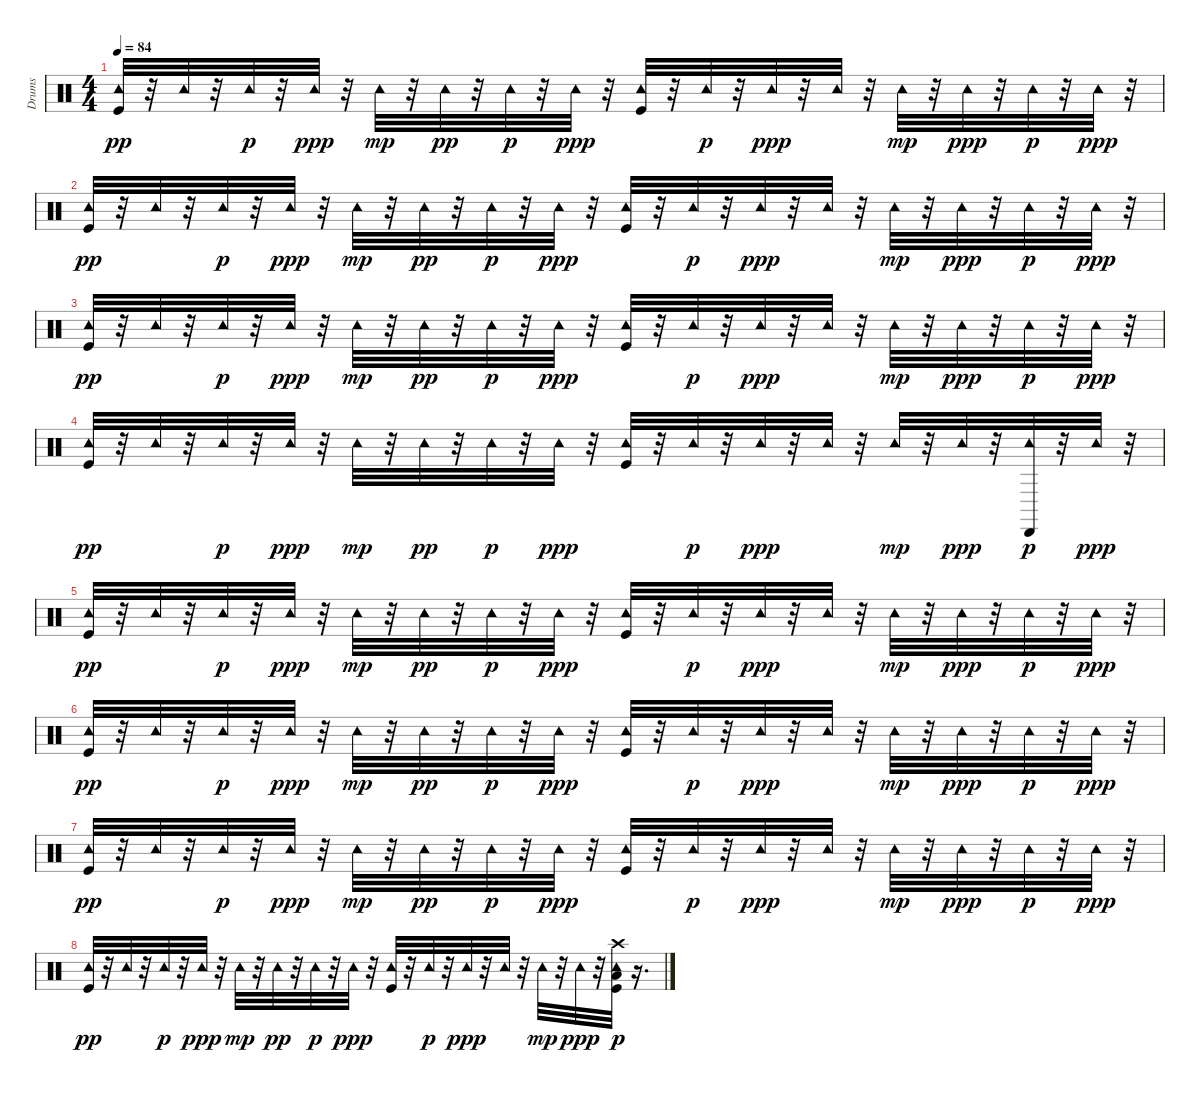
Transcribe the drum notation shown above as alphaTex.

\track ("Drums" "Drums") {instrument percussion}
\staff {score}
\articulation defaults
\ts (4 4)
\tempo 84
\clef neutral
\ks c
("Kick (hit)" "Tambourine (hit)").32{dy pp} r.32 "Tambourine (hit)".32 r.32 "Tambourine (hit)".32{dy p} r.32 "Tambourine (hit)".32{dy ppp} r.32 "Tambourine (hit)".32{dy mp} r.32 "Tambourine (hit)".32{dy pp} r.32 "Tambourine (hit)".32{dy p} r.32 "Tambourine (hit)".32{dy ppp} r.32 ("Kick (hit)" "Tambourine (hit)").32 r.32 "Tambourine (hit)".32{dy p} r.32 "Tambourine (hit)".32{dy ppp} r.32 "Tambourine (hit)".32 r.32 "Tambourine (hit)".32{dy mp} r.32 "Tambourine (hit)".32{dy ppp} r.32 "Tambourine (hit)".32{dy p} r.32 "Tambourine (hit)".32{dy ppp} r.32 |
("Kick (hit)" "Tambourine (hit)").32{dy pp} r.32 "Tambourine (hit)".32 r.32 "Tambourine (hit)".32{dy p} r.32 "Tambourine (hit)".32{dy ppp} r.32 "Tambourine (hit)".32{dy mp} r.32 "Tambourine (hit)".32{dy pp} r.32 "Tambourine (hit)".32{dy p} r.32 "Tambourine (hit)".32{dy ppp} r.32 ("Kick (hit)" "Tambourine (hit)").32 r.32 "Tambourine (hit)".32{dy p} r.32 "Tambourine (hit)".32{dy ppp} r.32 "Tambourine (hit)".32 r.32 "Tambourine (hit)".32{dy mp} r.32 "Tambourine (hit)".32{dy ppp} r.32 "Tambourine (hit)".32{dy p} r.32 "Tambourine (hit)".32{dy ppp} r.32 |
("Kick (hit)" "Tambourine (hit)").32{dy pp} r.32 "Tambourine (hit)".32 r.32 "Tambourine (hit)".32{dy p} r.32 "Tambourine (hit)".32{dy ppp} r.32 "Tambourine (hit)".32{dy mp} r.32 "Tambourine (hit)".32{dy pp} r.32 "Tambourine (hit)".32{dy p} r.32 "Tambourine (hit)".32{dy ppp} r.32 ("Kick (hit)" "Tambourine (hit)").32 r.32 "Tambourine (hit)".32{dy p} r.32 "Tambourine (hit)".32{dy ppp} r.32 "Tambourine (hit)".32 r.32 "Tambourine (hit)".32{dy mp} r.32 "Tambourine (hit)".32{dy ppp} r.32 "Tambourine (hit)".32{dy p} r.32 "Tambourine (hit)".32{dy ppp} r.32 |
("Kick (hit)" "Tambourine (hit)").32{dy pp} r.32 "Tambourine (hit)".32 r.32 "Tambourine (hit)".32{dy p} r.32 "Tambourine (hit)".32{dy ppp} r.32 "Tambourine (hit)".32{dy mp} r.32 "Tambourine (hit)".32{dy pp} r.32 "Tambourine (hit)".32{dy p} r.32 "Tambourine (hit)".32{dy ppp} r.32 ("Kick (hit)" "Tambourine (hit)").32 r.32 "Tambourine (hit)".32{dy p} r.32 "Tambourine (hit)".32{dy ppp} r.32 "Tambourine (hit)".32 r.32 "Tambourine (hit)".32{dy mp} r.32 "Tambourine (hit)".32{dy ppp} r.32 ("Cabasa (hit)" "Tambourine (hit)").32{dy p} r.32 "Tambourine (hit)".32{dy ppp} r.32 |
("Kick (hit)" "Tambourine (hit)").32{dy pp} r.32 "Tambourine (hit)".32 r.32 "Tambourine (hit)".32{dy p} r.32 "Tambourine (hit)".32{dy ppp} r.32 "Tambourine (hit)".32{dy mp} r.32 "Tambourine (hit)".32{dy pp} r.32 "Tambourine (hit)".32{dy p} r.32 "Tambourine (hit)".32{dy ppp} r.32 ("Kick (hit)" "Tambourine (hit)").32 r.32 "Tambourine (hit)".32{dy p} r.32 "Tambourine (hit)".32{dy ppp} r.32 "Tambourine (hit)".32 r.32 "Tambourine (hit)".32{dy mp} r.32 "Tambourine (hit)".32{dy ppp} r.32 "Tambourine (hit)".32{dy p} r.32 "Tambourine (hit)".32{dy ppp} r.32 |
("Kick (hit)" "Tambourine (hit)").32{dy pp} r.32 "Tambourine (hit)".32 r.32 "Tambourine (hit)".32{dy p} r.32 "Tambourine (hit)".32{dy ppp} r.32 "Tambourine (hit)".32{dy mp} r.32 "Tambourine (hit)".32{dy pp} r.32 "Tambourine (hit)".32{dy p} r.32 "Tambourine (hit)".32{dy ppp} r.32 ("Kick (hit)" "Tambourine (hit)").32 r.32 "Tambourine (hit)".32{dy p} r.32 "Tambourine (hit)".32{dy ppp} r.32 "Tambourine (hit)".32 r.32 "Tambourine (hit)".32{dy mp} r.32 "Tambourine (hit)".32{dy ppp} r.32 "Tambourine (hit)".32{dy p} r.32 "Tambourine (hit)".32{dy ppp} r.32 |
("Kick (hit)" "Tambourine (hit)").32{dy pp} r.32 "Tambourine (hit)".32 r.32 "Tambourine (hit)".32{dy p} r.32 "Tambourine (hit)".32{dy ppp} r.32 "Tambourine (hit)".32{dy mp} r.32 "Tambourine (hit)".32{dy pp} r.32 "Tambourine (hit)".32{dy p} r.32 "Tambourine (hit)".32{dy ppp} r.32 ("Kick (hit)" "Tambourine (hit)").32 r.32 "Tambourine (hit)".32{dy p} r.32 "Tambourine (hit)".32{dy ppp} r.32 "Tambourine (hit)".32 r.32 "Tambourine (hit)".32{dy mp} r.32 "Tambourine (hit)".32{dy ppp} r.32 "Tambourine (hit)".32{dy p} r.32 "Tambourine (hit)".32{dy ppp} r.32 |
("Kick (hit)" "Tambourine (hit)").32{dy pp} r.32 "Tambourine (hit)".32 r.32 "Tambourine (hit)".32{dy p} r.32 "Tambourine (hit)".32{dy ppp} r.32 "Tambourine (hit)".32{dy mp} r.32 "Tambourine (hit)".32{dy pp} r.32 "Tambourine (hit)".32{dy p} r.32 "Tambourine (hit)".32{dy ppp} r.32 ("Kick (hit)" "Tambourine (hit)").32 r.32 "Tambourine (hit)".32{dy p} r.32 "Tambourine (hit)".32{dy ppp} r.32 "Tambourine (hit)".32 r.32 "Tambourine (hit)".32{dy mp} r.32 "Tambourine (hit)".32{dy ppp} r.32 ("Low Tom (hit)" "Kick (hit)" "Crash high (hit)" "Tambourine (hit)").32{dy p} r.16{d}
